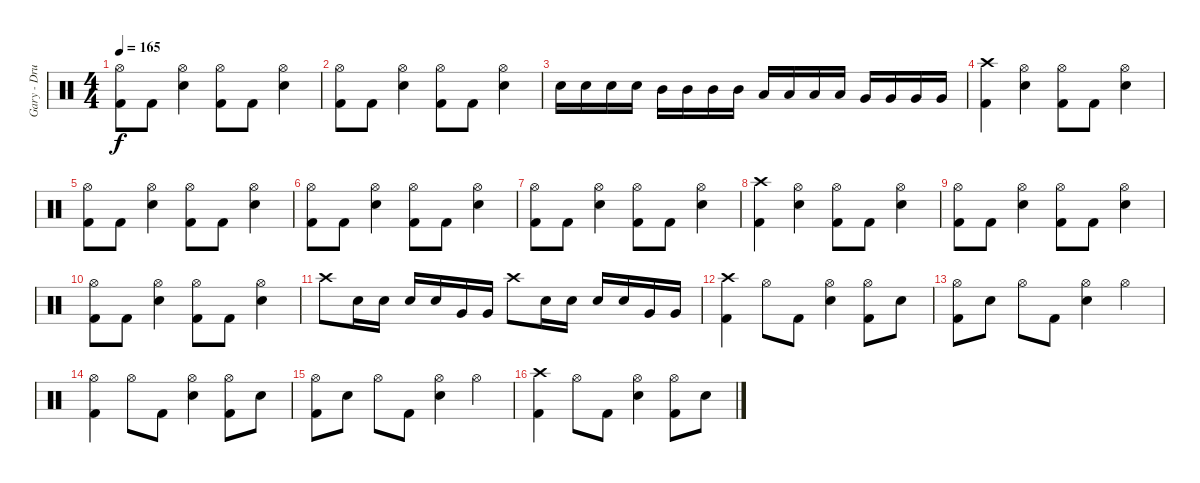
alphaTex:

\track ("Gary - Drums" "Gary - Dru") {instrument percussion}
\staff {score}
\articulation defaults
\ts (4 4)
\tempo 165
\clef neutral
\ks c
("Hi-Hat (open)" "Kick (hit) 2").8{dy f} "Kick (hit) 2".8 ("Hi-Hat (open)" "Snare (hit) 2").4 ("Hi-Hat (open)" "Kick (hit) 2").8 "Kick (hit) 2".8 ("Hi-Hat (open)" "Snare (hit) 2").4 |
("Hi-Hat (open)" "Kick (hit) 2").8 "Kick (hit) 2".8 ("Hi-Hat (open)" "Snare (hit) 2").4 ("Hi-Hat (open)" "Kick (hit) 2").8 "Kick (hit) 2".8 ("Hi-Hat (open)" "Snare (hit) 2").4 |
"Snare (hit) 2".16 "Snare (hit) 2".16 "Snare (hit) 2".16 "Snare (hit) 2".16 "Mid Tom (hit)".16 "Mid Tom (hit)".16 "Mid Tom (hit)".16 "Mid Tom (hit)".16 "Low Tom (hit)".16 "Low Tom (hit)".16 "Low Tom (hit)".16 "Low Tom (hit)".16 "Very Low Tom (hit)".16 "Very Low Tom (hit)".16 "Very Low Tom (hit)".16 "Very Low Tom (hit)".16 |
("Crash high (hit)" "Kick (hit) 2").4 ("Hi-Hat (open)" "Snare (hit) 2").4 ("Hi-Hat (open)" "Kick (hit) 2").8 "Kick (hit) 2".8 ("Hi-Hat (open)" "Snare (hit) 2").4 |
("Hi-Hat (open)" "Kick (hit) 2").8 "Kick (hit) 2".8 ("Hi-Hat (open)" "Snare (hit) 2").4 ("Hi-Hat (open)" "Kick (hit) 2").8 "Kick (hit) 2".8 ("Hi-Hat (open)" "Snare (hit) 2").4 |
("Hi-Hat (open)" "Kick (hit) 2").8 "Kick (hit) 2".8 ("Hi-Hat (open)" "Snare (hit) 2").4 ("Hi-Hat (open)" "Kick (hit) 2").8 "Kick (hit) 2".8 ("Hi-Hat (open)" "Snare (hit) 2").4 |
("Hi-Hat (open)" "Kick (hit) 2").8 "Kick (hit) 2".8 ("Hi-Hat (open)" "Snare (hit) 2").4 ("Hi-Hat (open)" "Kick (hit) 2").8 "Kick (hit) 2".8 ("Hi-Hat (open)" "Snare (hit) 2").4 |
("Crash high (hit)" "Kick (hit) 2").4 ("Hi-Hat (open)" "Snare (hit) 2").4 ("Hi-Hat (open)" "Kick (hit) 2").8 "Kick (hit) 2".8 ("Hi-Hat (open)" "Snare (hit) 2").4 |
("Hi-Hat (open)" "Kick (hit) 2").8 "Kick (hit) 2".8 ("Hi-Hat (open)" "Snare (hit) 2").4 ("Hi-Hat (open)" "Kick (hit) 2").8 "Kick (hit) 2".8 ("Hi-Hat (open)" "Snare (hit) 2").4 |
("Hi-Hat (open)" "Kick (hit) 2").8 "Kick (hit) 2".8 ("Hi-Hat (open)" "Snare (hit) 2").4 ("Hi-Hat (open)" "Kick (hit) 2").8 "Kick (hit) 2".8 ("Hi-Hat (open)" "Snare (hit) 2").4 |
"Crash high (hit)".8 "Snare (hit) 2".16 "Snare (hit) 2".16 "Snare (hit) 2".16 "Snare (hit) 2".16 "Very Low Tom (hit)".16 "Very Low Tom (hit)".16 "Crash high (hit)".8 "Snare (hit) 2".16 "Snare (hit) 2".16 "Snare (hit) 2".16 "Snare (hit) 2".16 "Very Low Tom (hit)".16 "Very Low Tom (hit)".16 |
("Crash high (hit)" "Kick (hit) 2").4 "Hi-Hat (open)".8 "Kick (hit) 2".8 ("Hi-Hat (open)" "Snare (hit) 2").4 ("Hi-Hat (open)" "Kick (hit) 2").8 "Snare (hit) 2".8 |
("Hi-Hat (open)" "Kick (hit) 2").8 "Snare (hit) 2".8 "Hi-Hat (open)".8 "Kick (hit) 2".8 ("Hi-Hat (open)" "Snare (hit) 2").4 "Hi-Hat (open)".4 |
("Hi-Hat (open)" "Kick (hit) 2").4 "Hi-Hat (open)".8 "Kick (hit) 2".8 ("Hi-Hat (open)" "Snare (hit) 2").4 ("Hi-Hat (open)" "Kick (hit) 2").8 "Snare (hit) 2".8 |
("Hi-Hat (open)" "Kick (hit) 2").8 "Snare (hit) 2".8 "Hi-Hat (open)".8 "Kick (hit) 2".8 ("Hi-Hat (open)" "Snare (hit) 2").4 "Hi-Hat (open)".4 |
("Crash high (hit)" "Kick (hit) 2").4 "Hi-Hat (open)".8 "Kick (hit) 2".8 ("Hi-Hat (open)" "Snare (hit) 2").4 ("Hi-Hat (open)" "Kick (hit) 2").8 "Snare (hit) 2".8
